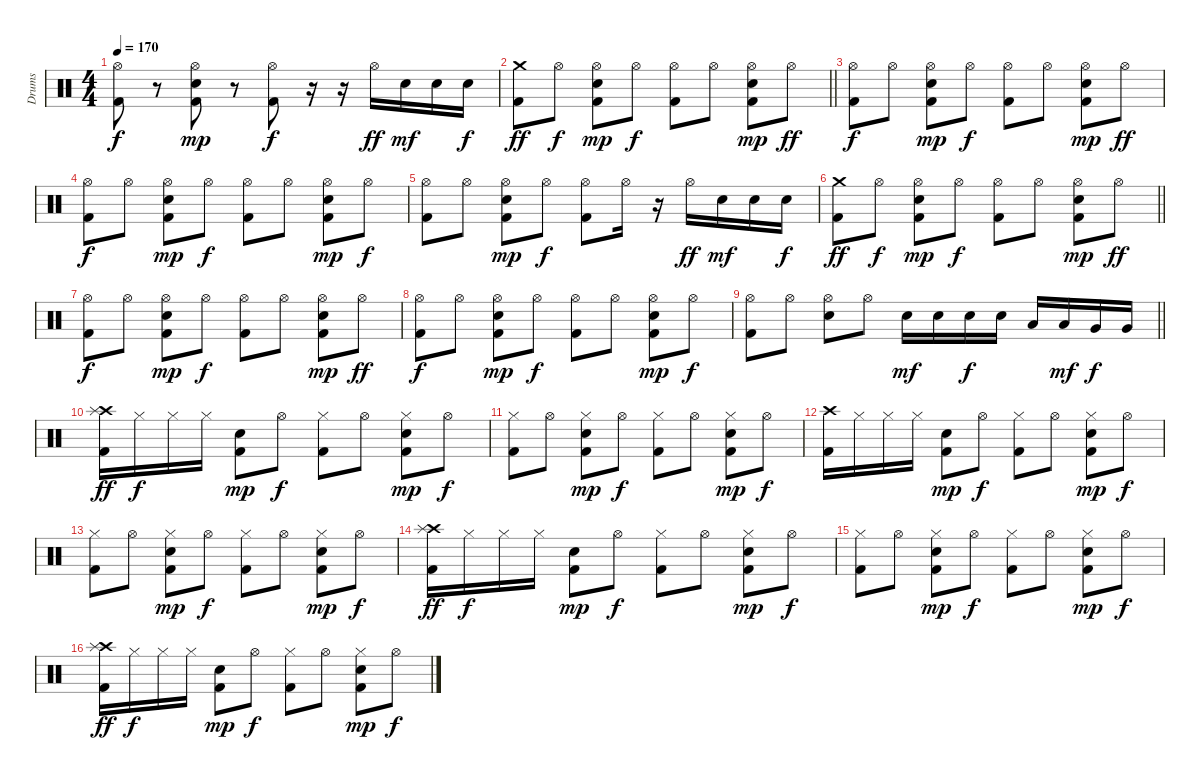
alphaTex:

\track ("Drums" "Drums") {instrument percussion}
\staff {score}
\articulation defaults
\ts (4 4)
\tempo 170
\clef neutral
\ks c
("Hi-Hat (open)" "Kick (hit) 2").8{dy f} r.8 ("Hi-Hat (open)" "Electric Snare (hit)" "Kick (hit) 2").8{dy mp} r.8 ("Hi-Hat (open)" "Kick (hit) 2").8{dy f} r.16 r.16 "Hi-Hat (open)".16{dy ff} "Electric Snare (hit)".16{dy mf} "Electric Snare (hit)".16 "Electric Snare (hit)".16{dy f} |
\barLineRight lightlight
("Crash medium (hit)" "Kick (hit) 2").8{dy ff} "Hi-Hat (open)".8{dy f} ("Hi-Hat (open)" "Electric Snare (hit)" "Kick (hit) 2").8{dy mp} "Hi-Hat (open)".8{dy f} ("Hi-Hat (open)" "Kick (hit) 2").8 "Hi-Hat (open)".8 ("Hi-Hat (open)" "Electric Snare (hit)" "Kick (hit) 2").8{dy mp} "Hi-Hat (open)".8{dy ff} |
("Hi-Hat (open)" "Kick (hit) 2").8{dy f} "Hi-Hat (open)".8 ("Hi-Hat (open)" "Electric Snare (hit)" "Kick (hit) 2").8{dy mp} "Hi-Hat (open)".8{dy f} ("Hi-Hat (open)" "Kick (hit) 2").8 "Hi-Hat (open)".8 ("Hi-Hat (open)" "Electric Snare (hit)" "Kick (hit) 2").8{dy mp} "Hi-Hat (open)".8{dy ff} |
("Hi-Hat (open)" "Kick (hit) 2").8{dy f} "Hi-Hat (open)".8 ("Hi-Hat (open)" "Electric Snare (hit)" "Kick (hit) 2").8{dy mp} "Hi-Hat (open)".8{dy f} ("Hi-Hat (open)" "Kick (hit) 2").8 "Hi-Hat (open)".8 ("Hi-Hat (open)" "Electric Snare (hit)" "Kick (hit) 2").8{dy mp} "Hi-Hat (open)".8{dy f} |
("Hi-Hat (open)" "Kick (hit) 2").8 "Hi-Hat (open)".8 ("Hi-Hat (open)" "Electric Snare (hit)" "Kick (hit) 2").8{dy mp} "Hi-Hat (open)".8{dy f} ("Hi-Hat (open)" "Kick (hit) 2").8 "Hi-Hat (open)".16 r.16 "Hi-Hat (open)".16{dy ff} "Electric Snare (hit)".16{dy mf} "Electric Snare (hit)".16 "Electric Snare (hit)".16{dy f} |
\barLineRight lightlight
("Crash medium (hit)" "Kick (hit) 2").8{dy ff} "Hi-Hat (open)".8{dy f} ("Hi-Hat (open)" "Electric Snare (hit)" "Kick (hit) 2").8{dy mp} "Hi-Hat (open)".8{dy f} ("Hi-Hat (open)" "Kick (hit) 2").8 "Hi-Hat (open)".8 ("Hi-Hat (open)" "Electric Snare (hit)" "Kick (hit) 2").8{dy mp} "Hi-Hat (open)".8{dy ff} |
("Hi-Hat (open)" "Kick (hit) 2").8{dy f} "Hi-Hat (open)".8 ("Hi-Hat (open)" "Electric Snare (hit)" "Kick (hit) 2").8{dy mp} "Hi-Hat (open)".8{dy f} ("Hi-Hat (open)" "Kick (hit) 2").8 "Hi-Hat (open)".8 ("Hi-Hat (open)" "Electric Snare (hit)" "Kick (hit) 2").8{dy mp} "Hi-Hat (open)".8{dy ff} |
("Hi-Hat (open)" "Kick (hit) 2").8{dy f} "Hi-Hat (open)".8 ("Hi-Hat (open)" "Electric Snare (hit)" "Kick (hit) 2").8{dy mp} "Hi-Hat (open)".8{dy f} ("Hi-Hat (open)" "Kick (hit) 2").8 "Hi-Hat (open)".8 ("Hi-Hat (open)" "Electric Snare (hit)" "Kick (hit) 2").8{dy mp} "Hi-Hat (open)".8{dy f} |
\barLineRight lightlight
("Hi-Hat (open)" "Kick (hit) 2").8 "Hi-Hat (open)".8 ("Hi-Hat (open)" "Electric Snare (hit)").8 "Hi-Hat (open)".8 "Electric Snare (hit)".16{dy mf} "Electric Snare (hit)".16 "Electric Snare (hit)".16{dy f} "Electric Snare (hit)".16 "Low Tom (hit)".16 "Low Tom (hit)".16{dy mf} "Very Low Tom (hit)".16{dy f} "Very Low Tom (hit)".16 |
("Crash high (hit)" "Kick (hit) 2" "Splash (hit)").16{dy ff} "Hi-Hat (closed)".16{dy f} "Hi-Hat (closed)".16 "Hi-Hat (closed)".16 ("Electric Snare (hit)" "Kick (hit) 2").8{dy mp} "Hi-Hat (open)".8{dy f} ("Hi-Hat (closed)" "Kick (hit) 2").8 "Hi-Hat (open)".8 ("Hi-Hat (closed)" "Electric Snare (hit)" "Kick (hit) 2").8{dy mp} "Hi-Hat (open)".8{dy f} |
("Hi-Hat (closed)" "Kick (hit) 2").8 "Hi-Hat (open)".8 ("Hi-Hat (closed)" "Electric Snare (hit)" "Kick (hit) 2").8{dy mp} "Hi-Hat (open)".8{dy f} ("Hi-Hat (closed)" "Kick (hit) 2").8 "Hi-Hat (open)".8 ("Hi-Hat (closed)" "Electric Snare (hit)" "Kick (hit) 2").8{dy mp} "Hi-Hat (open)".8{dy f} |
("Crash high (hit)" "Kick (hit) 2").16 "Hi-Hat (closed)".16 "Hi-Hat (closed)".16 "Hi-Hat (closed)".16 ("Electric Snare (hit)" "Kick (hit) 2").8{dy mp} "Hi-Hat (open)".8{dy f} ("Hi-Hat (closed)" "Kick (hit) 2").8 "Hi-Hat (open)".8 ("Hi-Hat (closed)" "Electric Snare (hit)" "Kick (hit) 2").8{dy mp} "Hi-Hat (open)".8{dy f} |
("Hi-Hat (closed)" "Kick (hit) 2").8 "Hi-Hat (open)".8 ("Hi-Hat (closed)" "Electric Snare (hit)" "Kick (hit) 2").8{dy mp} "Hi-Hat (open)".8{dy f} ("Hi-Hat (closed)" "Kick (hit) 2").8 "Hi-Hat (open)".8 ("Hi-Hat (closed)" "Electric Snare (hit)" "Kick (hit) 2").8{dy mp} "Hi-Hat (open)".8{dy f} |
("Crash high (hit)" "Kick (hit) 2" "Splash (hit)").16{dy ff} "Hi-Hat (closed)".16{dy f} "Hi-Hat (closed)".16 "Hi-Hat (closed)".16 ("Electric Snare (hit)" "Kick (hit) 2").8{dy mp} "Hi-Hat (open)".8{dy f} ("Hi-Hat (closed)" "Kick (hit) 2").8 "Hi-Hat (open)".8 ("Hi-Hat (closed)" "Electric Snare (hit)" "Kick (hit) 2").8{dy mp} "Hi-Hat (open)".8{dy f} |
("Hi-Hat (closed)" "Kick (hit) 2").8 "Hi-Hat (open)".8 ("Hi-Hat (closed)" "Electric Snare (hit)" "Kick (hit) 2").8{dy mp} "Hi-Hat (open)".8{dy f} ("Hi-Hat (closed)" "Kick (hit) 2").8 "Hi-Hat (open)".8 ("Hi-Hat (closed)" "Electric Snare (hit)" "Kick (hit) 2").8{dy mp} "Hi-Hat (open)".8{dy f} |
("Crash high (hit)" "Kick (hit) 2" "Splash (hit)").16{dy ff} "Hi-Hat (closed)".16{dy f} "Hi-Hat (closed)".16 "Hi-Hat (closed)".16 ("Electric Snare (hit)" "Kick (hit) 2").8{dy mp} "Hi-Hat (open)".8{dy f} ("Hi-Hat (closed)" "Kick (hit) 2").8 "Hi-Hat (open)".8 ("Hi-Hat (closed)" "Electric Snare (hit)" "Kick (hit) 2").8{dy mp} "Hi-Hat (open)".8{dy f}
